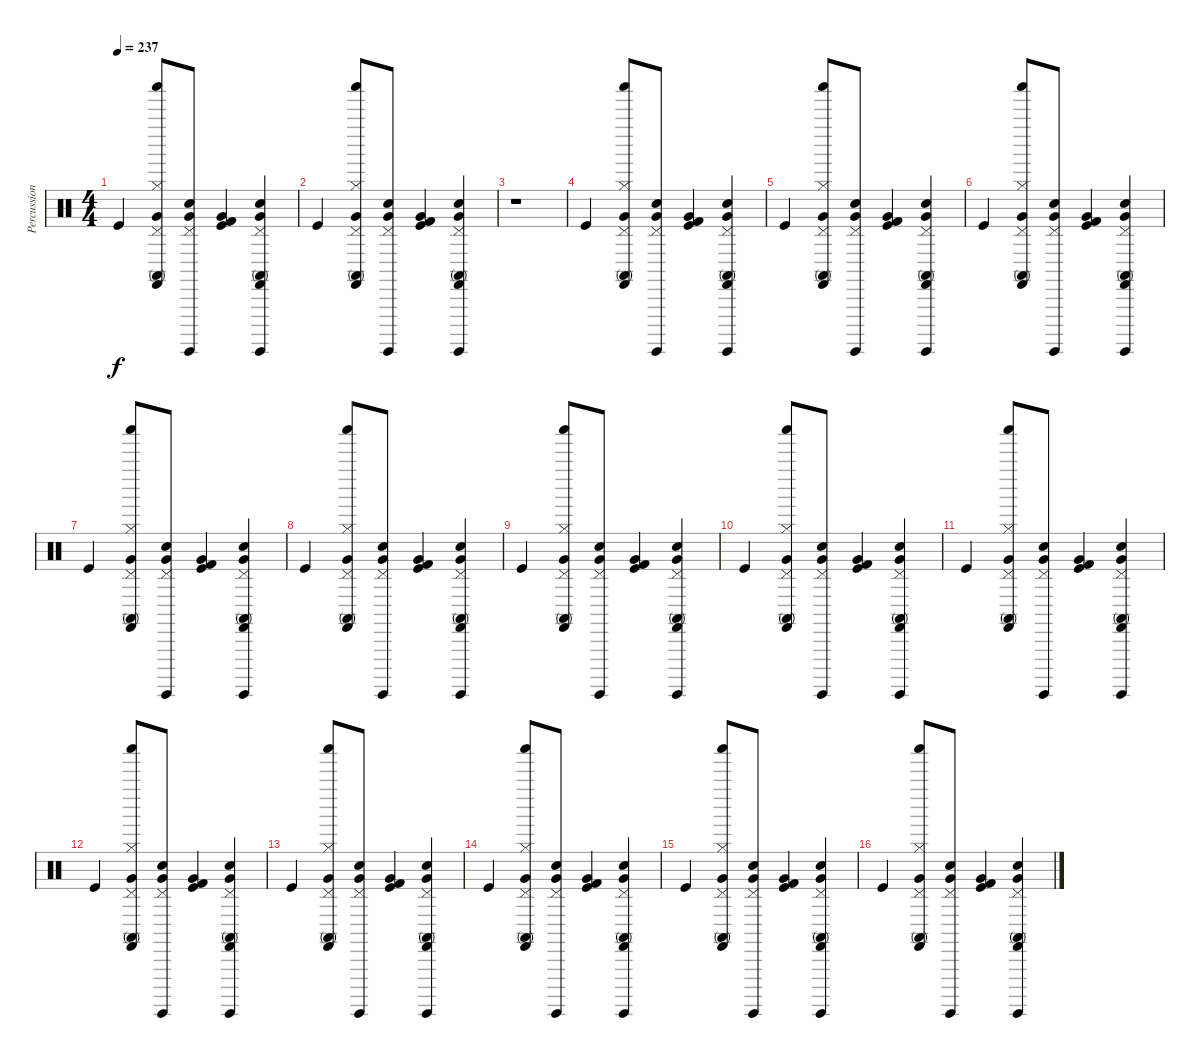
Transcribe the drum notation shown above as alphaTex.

\track ("Percussions" "Percussion") {instrument percussion}
\staff {score}
\articulation defaults
\ts (4 4)
\tempo 237
\clef neutral
\ks c "Kick (hit)".4{dy f}
("Hi-Hat (closed)" "Shaker (hit)" "Pedal Hi-Hat (hit)" "Very Low Tom (hit)" "Conga high (mute)" "Castanets (hit)").8 ("Hand Clap (hit)" "Surdo (hit)" "Pedal Hi-Hat (hit)" "Very Low Tom (hit)").8 ("Kick (hit)" "Kick (hit) 2" "Very Low Tom (hit)").4 ("Hand Clap (hit)" "Surdo (hit)" "Pedal Hi-Hat (hit)" "Very Low Tom (hit)" "Conga high (mute)" "Castanets (hit)").4 |
"Kick (hit)".4 ("Hi-Hat (closed)" "Shaker (hit)" "Pedal Hi-Hat (hit)" "Very Low Tom (hit)" "Conga high (mute)" "Castanets (hit)").8 ("Hand Clap (hit)" "Surdo (hit)" "Pedal Hi-Hat (hit)" "Very Low Tom (hit)").8 ("Kick (hit)" "Kick (hit) 2" "Very Low Tom (hit)").4 ("Hand Clap (hit)" "Surdo (hit)" "Pedal Hi-Hat (hit)" "Very Low Tom (hit)" "Conga high (mute)" "Castanets (hit)").4 |
r.1 |
"Kick (hit)".4 ("Hi-Hat (closed)" "Shaker (hit)" "Pedal Hi-Hat (hit)" "Very Low Tom (hit)" "Conga high (mute)" "Castanets (hit)").8 ("Hand Clap (hit)" "Surdo (hit)" "Pedal Hi-Hat (hit)" "Very Low Tom (hit)").8 ("Kick (hit)" "Kick (hit) 2" "Very Low Tom (hit)").4 ("Hand Clap (hit)" "Surdo (hit)" "Pedal Hi-Hat (hit)" "Very Low Tom (hit)" "Conga high (mute)" "Castanets (hit)").4 |
"Kick (hit)".4 ("Hi-Hat (closed)" "Shaker (hit)" "Pedal Hi-Hat (hit)" "Very Low Tom (hit)" "Conga high (mute)" "Castanets (hit)").8 ("Hand Clap (hit)" "Surdo (hit)" "Pedal Hi-Hat (hit)" "Very Low Tom (hit)").8 ("Kick (hit)" "Kick (hit) 2" "Very Low Tom (hit)").4 ("Hand Clap (hit)" "Surdo (hit)" "Pedal Hi-Hat (hit)" "Very Low Tom (hit)" "Conga high (mute)" "Castanets (hit)").4 |
"Kick (hit)".4 ("Hi-Hat (closed)" "Shaker (hit)" "Pedal Hi-Hat (hit)" "Very Low Tom (hit)" "Conga high (mute)" "Castanets (hit)").8 ("Hand Clap (hit)" "Surdo (hit)" "Pedal Hi-Hat (hit)" "Very Low Tom (hit)").8 ("Kick (hit)" "Kick (hit) 2" "Very Low Tom (hit)").4 ("Hand Clap (hit)" "Surdo (hit)" "Pedal Hi-Hat (hit)" "Very Low Tom (hit)" "Conga high (mute)" "Castanets (hit)").4 |
"Kick (hit)".4 ("Hi-Hat (closed)" "Shaker (hit)" "Pedal Hi-Hat (hit)" "Very Low Tom (hit)" "Conga high (mute)" "Castanets (hit)").8 ("Hand Clap (hit)" "Surdo (hit)" "Pedal Hi-Hat (hit)" "Very Low Tom (hit)").8 ("Kick (hit)" "Kick (hit) 2" "Very Low Tom (hit)").4 ("Hand Clap (hit)" "Surdo (hit)" "Pedal Hi-Hat (hit)" "Very Low Tom (hit)" "Conga high (mute)" "Castanets (hit)").4 |
"Kick (hit)".4 ("Hi-Hat (closed)" "Shaker (hit)" "Pedal Hi-Hat (hit)" "Very Low Tom (hit)" "Conga high (mute)" "Castanets (hit)").8 ("Hand Clap (hit)" "Surdo (hit)" "Pedal Hi-Hat (hit)" "Very Low Tom (hit)").8 ("Kick (hit)" "Kick (hit) 2" "Very Low Tom (hit)").4 ("Hand Clap (hit)" "Surdo (hit)" "Pedal Hi-Hat (hit)" "Very Low Tom (hit)" "Conga high (mute)" "Castanets (hit)").4 |
"Kick (hit)".4 ("Hi-Hat (closed)" "Shaker (hit)" "Pedal Hi-Hat (hit)" "Very Low Tom (hit)" "Conga high (mute)" "Castanets (hit)").8 ("Hand Clap (hit)" "Surdo (hit)" "Pedal Hi-Hat (hit)" "Very Low Tom (hit)").8 ("Kick (hit)" "Kick (hit) 2" "Very Low Tom (hit)").4 ("Hand Clap (hit)" "Surdo (hit)" "Pedal Hi-Hat (hit)" "Very Low Tom (hit)" "Conga high (mute)" "Castanets (hit)").4 |
"Kick (hit)".4 ("Hi-Hat (closed)" "Shaker (hit)" "Pedal Hi-Hat (hit)" "Very Low Tom (hit)" "Conga high (mute)" "Castanets (hit)").8 ("Hand Clap (hit)" "Surdo (hit)" "Pedal Hi-Hat (hit)" "Very Low Tom (hit)").8 ("Kick (hit)" "Kick (hit) 2" "Very Low Tom (hit)").4 ("Hand Clap (hit)" "Surdo (hit)" "Pedal Hi-Hat (hit)" "Very Low Tom (hit)" "Conga high (mute)" "Castanets (hit)").4 |
"Kick (hit)".4 ("Hi-Hat (closed)" "Shaker (hit)" "Pedal Hi-Hat (hit)" "Very Low Tom (hit)" "Conga high (mute)" "Castanets (hit)").8 ("Hand Clap (hit)" "Surdo (hit)" "Pedal Hi-Hat (hit)" "Very Low Tom (hit)").8 ("Kick (hit)" "Kick (hit) 2" "Very Low Tom (hit)").4 ("Hand Clap (hit)" "Surdo (hit)" "Pedal Hi-Hat (hit)" "Very Low Tom (hit)" "Conga high (mute)" "Castanets (hit)").4 |
"Kick (hit)".4 ("Hi-Hat (closed)" "Shaker (hit)" "Pedal Hi-Hat (hit)" "Very Low Tom (hit)" "Conga high (mute)" "Castanets (hit)").8 ("Hand Clap (hit)" "Surdo (hit)" "Pedal Hi-Hat (hit)" "Very Low Tom (hit)").8 ("Kick (hit)" "Kick (hit) 2" "Very Low Tom (hit)").4 ("Hand Clap (hit)" "Surdo (hit)" "Pedal Hi-Hat (hit)" "Very Low Tom (hit)" "Conga high (mute)" "Castanets (hit)").4 |
"Kick (hit)".4 ("Hi-Hat (closed)" "Shaker (hit)" "Pedal Hi-Hat (hit)" "Very Low Tom (hit)" "Conga high (mute)" "Castanets (hit)").8 ("Hand Clap (hit)" "Surdo (hit)" "Pedal Hi-Hat (hit)" "Very Low Tom (hit)").8 ("Kick (hit)" "Kick (hit) 2" "Very Low Tom (hit)").4 ("Hand Clap (hit)" "Surdo (hit)" "Pedal Hi-Hat (hit)" "Very Low Tom (hit)" "Conga high (mute)" "Castanets (hit)").4 |
"Kick (hit)".4 ("Hi-Hat (closed)" "Shaker (hit)" "Pedal Hi-Hat (hit)" "Very Low Tom (hit)" "Conga high (mute)" "Castanets (hit)").8 ("Hand Clap (hit)" "Surdo (hit)" "Pedal Hi-Hat (hit)" "Very Low Tom (hit)").8 ("Kick (hit)" "Kick (hit) 2" "Very Low Tom (hit)").4 ("Hand Clap (hit)" "Surdo (hit)" "Pedal Hi-Hat (hit)" "Very Low Tom (hit)" "Conga high (mute)" "Castanets (hit)").4 |
"Kick (hit)".4 ("Hi-Hat (closed)" "Shaker (hit)" "Pedal Hi-Hat (hit)" "Very Low Tom (hit)" "Conga high (mute)" "Castanets (hit)").8 ("Hand Clap (hit)" "Surdo (hit)" "Pedal Hi-Hat (hit)" "Very Low Tom (hit)").8 ("Kick (hit)" "Kick (hit) 2" "Very Low Tom (hit)").4 ("Hand Clap (hit)" "Surdo (hit)" "Pedal Hi-Hat (hit)" "Very Low Tom (hit)" "Conga high (mute)" "Castanets (hit)").4 |
"Kick (hit)".4 ("Hi-Hat (closed)" "Shaker (hit)" "Pedal Hi-Hat (hit)" "Very Low Tom (hit)" "Conga high (mute)" "Castanets (hit)").8 ("Hand Clap (hit)" "Surdo (hit)" "Pedal Hi-Hat (hit)" "Very Low Tom (hit)").8 ("Kick (hit)" "Kick (hit) 2" "Very Low Tom (hit)").4 ("Hand Clap (hit)" "Surdo (hit)" "Pedal Hi-Hat (hit)" "Very Low Tom (hit)" "Conga high (mute)" "Castanets (hit)").4
